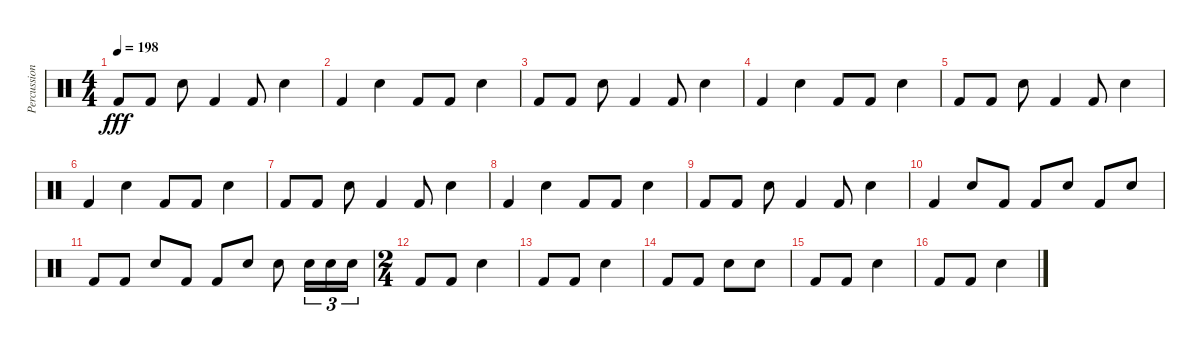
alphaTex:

\track ("Percussion" "Percussion") {instrument percussion}
\staff {score}
\articulation defaults
\ts (4 4)
\tempo 198
\clef neutral
\ks c "Kick (hit) 2".8{dy fff} "Kick (hit) 2".8 "Electric Snare (hit)".8 "Kick (hit) 2".4 "Kick (hit) 2".8 "Electric Snare (hit)".4
|
"Kick (hit) 2".4 "Electric Snare (hit)".4 "Kick (hit) 2".8 "Kick (hit) 2".8 "Electric Snare (hit)".4 |
"Kick (hit) 2".8 "Kick (hit) 2".8 "Electric Snare (hit)".8 "Kick (hit) 2".4 "Kick (hit) 2".8 "Electric Snare (hit)".4 |
"Kick (hit) 2".4 "Electric Snare (hit)".4 "Kick (hit) 2".8 "Kick (hit) 2".8 "Electric Snare (hit)".4 |
"Kick (hit) 2".8 "Kick (hit) 2".8 "Electric Snare (hit)".8 "Kick (hit) 2".4 "Kick (hit) 2".8 "Electric Snare (hit)".4 |
"Kick (hit) 2".4 "Electric Snare (hit)".4 "Kick (hit) 2".8 "Kick (hit) 2".8 "Electric Snare (hit)".4 |
"Kick (hit) 2".8 "Kick (hit) 2".8 "Electric Snare (hit)".8 "Kick (hit) 2".4 "Kick (hit) 2".8 "Electric Snare (hit)".4 |
"Kick (hit) 2".4 "Electric Snare (hit)".4 "Kick (hit) 2".8 "Kick (hit) 2".8 "Electric Snare (hit)".4 |
"Kick (hit) 2".8 "Kick (hit) 2".8 "Electric Snare (hit)".8 "Kick (hit) 2".4 "Kick (hit) 2".8 "Electric Snare (hit)".4 |
"Kick (hit) 2".4 "Electric Snare (hit)".8 "Kick (hit) 2".8 "Kick (hit) 2".8 "Electric Snare (hit)".8 "Kick (hit) 2".8 "Electric Snare (hit)".8 |
"Kick (hit) 2".8 "Kick (hit) 2".8 "Electric Snare (hit)".8 "Kick (hit) 2".8 "Kick (hit) 2".8 "Electric Snare (hit)".8 "Electric Snare (hit)".8 "Electric Snare (hit)".16{tu (3 2)} "Electric Snare (hit)".16{tu (3 2)} "Electric Snare (hit)".16{tu (3 2)} |
\ts (2 4)
"Kick (hit) 2".8 "Kick (hit) 2".8 "Electric Snare (hit)".4 |
"Kick (hit) 2".8 "Kick (hit) 2".8 "Electric Snare (hit)".4 |
"Kick (hit) 2".8 "Kick (hit) 2".8 "Electric Snare (hit)".8 "Electric Snare (hit)".8 |
"Kick (hit) 2".8 "Kick (hit) 2".8 "Electric Snare (hit)".4 |
"Kick (hit) 2".8 "Kick (hit) 2".8 "Electric Snare (hit)".4
